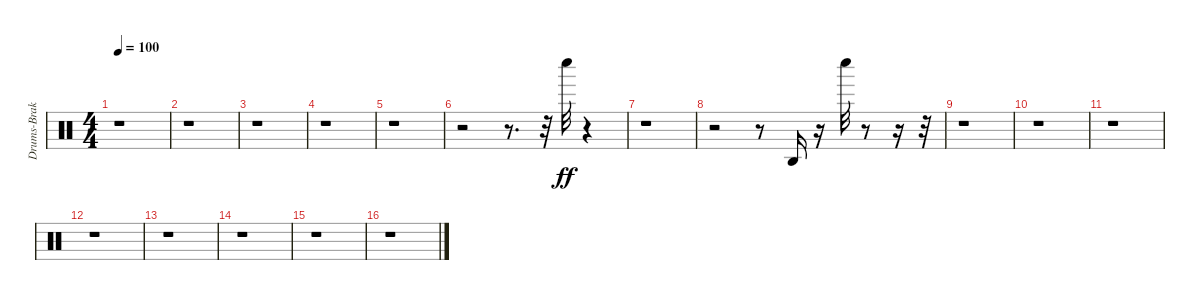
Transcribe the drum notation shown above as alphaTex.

\track ("Drums-Brakes" "Drums-Brak") {instrument percussion}
\staff {score}
\articulation defaults
\ts (4 4)
\tempo 100
\clef neutral
\ks c
r.1{dy fff} |
r.1 |
r.1 |
r.1 |
r.1 |
r.2 r.8{d} r.32 "Whistle low (hit)".32{dy ff} r.4 |
r.1 |
r.2 r.8 "Agogo high (hit)".16 r.16 "Whistle low (hit)".32 r.8 r.16 r.32 |
r.1 |
r.1 |
r.1 |
r.1 |
r.1 |
r.1 |
r.1 |
r.1
